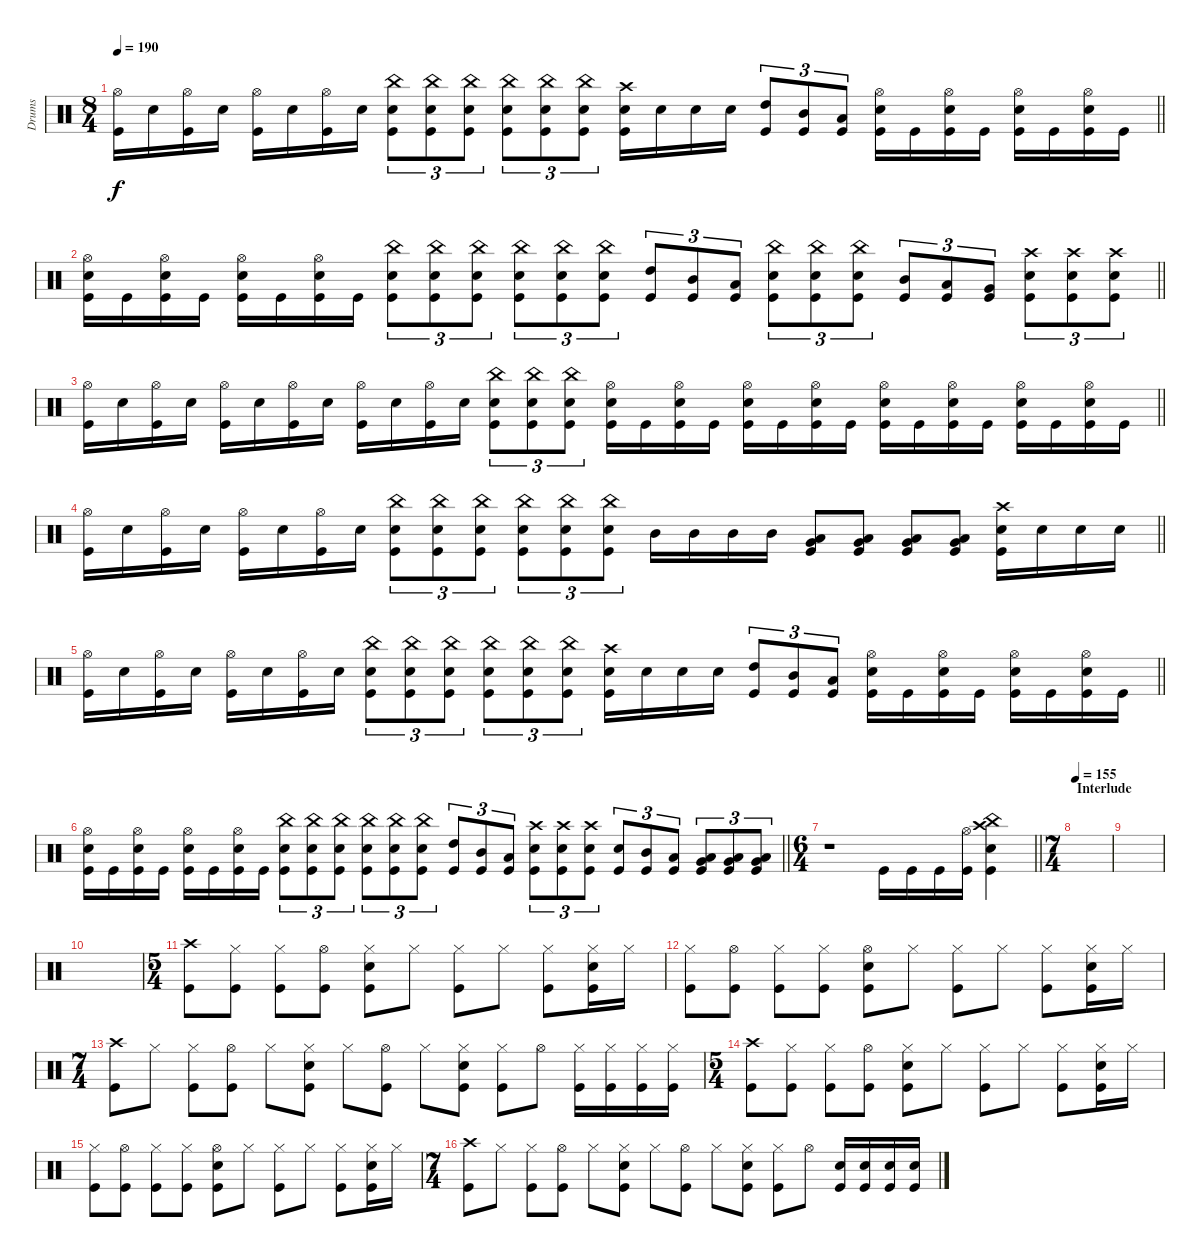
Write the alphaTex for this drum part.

\track ("Drums" "Drums") {instrument percussion}
\staff {score}
\articulation defaults
\ts (8 4)
\tempo 190
\clef neutral
\barLineRight lightlight
\ks c
("Hi-Hat (open)" "Kick (hit)").16{dy f} "Snare (hit) 2".16 ("Kick (hit)" "Hi-Hat (open)").16 "Snare (hit) 2".16 ("Kick (hit)" "Hi-Hat (open)").16 "Snare (hit) 2".16 ("Kick (hit)" "Hi-Hat (open)").16 "Snare (hit) 2".16 ("Kick (hit)" "Snare (hit) 2" "China (hit)").8{tu (3 2)} ("Kick (hit)" "Snare (hit) 2" "China (hit)").8{tu (3 2)} ("Kick (hit)" "Snare (hit) 2" "China (hit)").8{tu (3 2)} ("Kick (hit)" "Snare (hit) 2" "China (hit)").8{tu (3 2)} ("Kick (hit)" "Snare (hit) 2" "China (hit)").8{tu (3 2)} ("Kick (hit)" "Snare (hit) 2" "China (hit)").8{tu (3 2)} ("Kick (hit)" "Crash high (hit)" "Snare (hit) 2").16 "Snare (hit) 2".16 "Snare (hit) 2".16 "Snare (hit) 2".16 ("Kick (hit)" "High Tom (hit)").8{tu (3 2)} ("Kick (hit)" "Mid Tom (hit)").8{tu (3 2)} ("Kick (hit)" "Low Tom (hit)").8{tu (3 2)} ("Kick (hit)" "Snare (hit) 2" "Hi-Hat (open)").16 "Kick (hit)".16 ("Kick (hit)" "Snare (hit) 2" "Hi-Hat (open)").16 "Kick (hit)".16 ("Kick (hit)" "Snare (hit) 2" "Hi-Hat (open)").16 "Kick (hit)".16 ("Kick (hit)" "Snare (hit) 2" "Hi-Hat (open)").16 "Kick (hit)".16 |
\barLineRight lightlight
("Kick (hit)" "Snare (hit) 2" "Hi-Hat (open)").16 "Kick (hit)".16 ("Kick (hit)" "Snare (hit) 2" "Hi-Hat (open)").16 "Kick (hit)".16 ("Kick (hit)" "Snare (hit) 2" "Hi-Hat (open)").16 "Kick (hit)".16 ("Kick (hit)" "Snare (hit) 2" "Hi-Hat (open)").16 "Kick (hit)".16 ("Kick (hit)" "Snare (hit) 2" "China (hit)").8{tu (3 2)} ("Kick (hit)" "Snare (hit) 2" "China (hit)").8{tu (3 2)} ("Kick (hit)" "Snare (hit) 2" "China (hit)").8{tu (3 2)} ("Kick (hit)" "Snare (hit) 2" "China (hit)").8{tu (3 2)} ("Kick (hit)" "Snare (hit) 2" "China (hit)").8{tu (3 2)} ("Kick (hit)" "Snare (hit) 2" "China (hit)").8{tu (3 2)} ("Kick (hit)" "High Tom (hit)").8{tu (3 2)} ("Kick (hit)" "Mid Tom (hit)").8{tu (3 2)} ("Kick (hit)" "Low Tom (hit)").8{tu (3 2)} ("Kick (hit)" "Snare (hit) 2" "China (hit)").8{tu (3 2)} ("Kick (hit)" "Snare (hit) 2" "China (hit)").8{tu (3 2)} ("Kick (hit)" "Snare (hit) 2" "China (hit)").8{tu (3 2)} ("Kick (hit)" "Mid Tom (hit)").8{tu (3 2)} ("Kick (hit)" "Low Tom (hit)").8{tu (3 2)} ("Kick (hit)" "Very Low Tom (hit)").8{tu (3 2)} ("Kick (hit)" "Snare (hit) 2" "Crash high (hit)").8{tu (3 2)} ("Kick (hit)" "Snare (hit) 2" "Crash high (hit)").8{tu (3 2)} ("Kick (hit)" "Snare (hit) 2" "Crash high (hit)").8{tu (3 2)} |
\barLineRight lightlight
("Hi-Hat (open)" "Kick (hit)").16 "Snare (hit) 2".16 ("Kick (hit)" "Hi-Hat (open)").16 "Snare (hit) 2".16 ("Kick (hit)" "Hi-Hat (open)").16 "Snare (hit) 2".16 ("Kick (hit)" "Hi-Hat (open)").16 "Snare (hit) 2".16 ("Kick (hit)" "Hi-Hat (open)").16 "Snare (hit) 2".16 ("Kick (hit)" "Hi-Hat (open)").16 "Snare (hit) 2".16 ("Kick (hit)" "Snare (hit) 2" "China (hit)").8{tu (3 2)} ("Kick (hit)" "Snare (hit) 2" "China (hit)").8{tu (3 2)} ("Kick (hit)" "Snare (hit) 2" "China (hit)").8{tu (3 2)} ("Kick (hit)" "Snare (hit) 2" "Hi-Hat (open)").16 "Kick (hit)".16 ("Kick (hit)" "Snare (hit) 2" "Hi-Hat (open)").16 "Kick (hit)".16 ("Kick (hit)" "Snare (hit) 2" "Hi-Hat (open)").16 "Kick (hit)".16 ("Kick (hit)" "Snare (hit) 2" "Hi-Hat (open)").16 "Kick (hit)".16 ("Kick (hit)" "Snare (hit) 2" "Hi-Hat (open)").16 "Kick (hit)".16 ("Kick (hit)" "Snare (hit) 2" "Hi-Hat (open)").16 "Kick (hit)".16 ("Kick (hit)" "Snare (hit) 2" "Hi-Hat (open)").16 "Kick (hit)".16 ("Kick (hit)" "Snare (hit) 2" "Hi-Hat (open)").16 "Kick (hit)".16 |
\barLineRight lightlight
("Hi-Hat (open)" "Kick (hit)").16 "Snare (hit) 2".16 ("Kick (hit)" "Hi-Hat (open)").16 "Snare (hit) 2".16 ("Kick (hit)" "Hi-Hat (open)").16 "Snare (hit) 2".16 ("Kick (hit)" "Hi-Hat (open)").16 "Snare (hit) 2".16 ("Kick (hit)" "Snare (hit) 2" "China (hit)").8{tu (3 2)} ("Kick (hit)" "Snare (hit) 2" "China (hit)").8{tu (3 2)} ("Kick (hit)" "Snare (hit) 2" "China (hit)").8{tu (3 2)} ("Kick (hit)" "Snare (hit) 2" "China (hit)").8{tu (3 2)} ("Kick (hit)" "Snare (hit) 2" "China (hit)").8{tu (3 2)} ("Kick (hit)" "Snare (hit) 2" "China (hit)").8{tu (3 2)} "Mid Tom (hit)".16 "Mid Tom (hit)".16 "Mid Tom (hit)".16 "Mid Tom (hit)".16 ("Kick (hit)" "Low Tom (hit)" "Very Low Tom (hit)").8 ("Kick (hit)" "Low Tom (hit)" "Very Low Tom (hit)").8 ("Kick (hit)" "Very Low Tom (hit)" "Low Floor Tom (hit)").8 ("Kick (hit)" "Very Low Tom (hit)" "Low Floor Tom (hit)").8 ("Kick (hit)" "Crash high (hit)" "Snare (hit) 2").16 "Snare (hit) 2".16 "Snare (hit) 2".16 "Snare (hit) 2".16 |
\barLineRight lightlight
("Hi-Hat (open)" "Kick (hit)").16 "Snare (hit) 2".16 ("Kick (hit)" "Hi-Hat (open)").16 "Snare (hit) 2".16 ("Kick (hit)" "Hi-Hat (open)").16 "Snare (hit) 2".16 ("Kick (hit)" "Hi-Hat (open)").16 "Snare (hit) 2".16 ("Kick (hit)" "Snare (hit) 2" "China (hit)").8{tu (3 2)} ("Kick (hit)" "Snare (hit) 2" "China (hit)").8{tu (3 2)} ("Kick (hit)" "Snare (hit) 2" "China (hit)").8{tu (3 2)} ("Kick (hit)" "Snare (hit) 2" "China (hit)").8{tu (3 2)} ("Kick (hit)" "Snare (hit) 2" "China (hit)").8{tu (3 2)} ("Kick (hit)" "Snare (hit) 2" "China (hit)").8{tu (3 2)} ("Kick (hit)" "Crash high (hit)" "Snare (hit) 2").16 "Snare (hit) 2".16 "Snare (hit) 2".16 "Snare (hit) 2".16 ("Kick (hit)" "High Tom (hit)").8{tu (3 2)} ("Kick (hit)" "Mid Tom (hit)").8{tu (3 2)} ("Kick (hit)" "Low Tom (hit)").8{tu (3 2)} ("Kick (hit)" "Snare (hit) 2" "Hi-Hat (open)").16 "Kick (hit)".16 ("Kick (hit)" "Snare (hit) 2" "Hi-Hat (open)").16 "Kick (hit)".16 ("Kick (hit)" "Snare (hit) 2" "Hi-Hat (open)").16 "Kick (hit)".16 ("Kick (hit)" "Snare (hit) 2" "Hi-Hat (open)").16 "Kick (hit)".16 |
\barLineRight lightlight
("Kick (hit)" "Snare (hit) 2" "Hi-Hat (open)").16 "Kick (hit)".16 ("Kick (hit)" "Snare (hit) 2" "Hi-Hat (open)").16 "Kick (hit)".16 ("Kick (hit)" "Snare (hit) 2" "Hi-Hat (open)").16 "Kick (hit)".16 ("Kick (hit)" "Snare (hit) 2" "Hi-Hat (open)").16 "Kick (hit)".16 ("Kick (hit)" "Snare (hit) 2" "China (hit)").8{tu (3 2)} ("Kick (hit)" "Snare (hit) 2" "China (hit)").8{tu (3 2)} ("Kick (hit)" "Snare (hit) 2" "China (hit)").8{tu (3 2)} ("Kick (hit)" "Snare (hit) 2" "China (hit)").8{tu (3 2)} ("Kick (hit)" "Snare (hit) 2" "China (hit)").8{tu (3 2)} ("Kick (hit)" "Snare (hit) 2" "China (hit)").8{tu (3 2)} ("Kick (hit)" "High Tom (hit)").8{tu (3 2)} ("Kick (hit)" "Mid Tom (hit)").8{tu (3 2)} ("Kick (hit)" "Low Tom (hit)").8{tu (3 2)} ("Kick (hit)" "Snare (hit) 2" "Crash high (hit)").8{tu (3 2)} ("Kick (hit)" "Snare (hit) 2" "Crash high (hit)").8{tu (3 2)} ("Kick (hit)" "Snare (hit) 2" "Crash high (hit)").8{tu (3 2)} ("Kick (hit)" "Snare (hit) 2").8{tu (3 2)} ("Kick (hit)" "Mid Tom (hit)").8{tu (3 2)} ("Kick (hit)" "Low Tom (hit)").8{tu (3 2)} ("Kick (hit)" "Very Low Tom (hit)" "Low Floor Tom (hit)").8{tu (3 2)} ("Kick (hit)" "Very Low Tom (hit)" "Low Floor Tom (hit)").8{tu (3 2)} ("Kick (hit)" "Very Low Tom (hit)" "Low Floor Tom (hit)").8{tu (3 2)} |
\ts (6 4)
\barLineRight lightlight
r.1 "Kick (hit)".16 "Kick (hit)".16 "Kick (hit)".16 ("Kick (hit)" "Hi-Hat (open)").16 ("Kick (hit)" "Snare (hit) 2" "China (hit)" "Crash high (hit)").4 |
\ts (7 4)
\section ("" "Interlude")
\tempo 155
|
|
|
\ts (5 4)
("Crash high (hit)" "Kick (hit)").8 ("Hi-Hat (closed)" "Kick (hit)").8 ("Hi-Hat (closed)" "Kick (hit)").8 ("Hi-Hat (open)" "Kick (hit)").8 ("Hi-Hat (closed)" "Kick (hit)" "Snare (hit) 2").8 "Hi-Hat (closed)".8 ("Hi-Hat (closed)" "Kick (hit)").8 "Hi-Hat (closed)".8 ("Hi-Hat (closed)" "Kick (hit)").8 ("Hi-Hat (closed)" "Kick (hit)" "Snare (hit) 2").16 "Hi-Hat (closed)".16 |
("Hi-Hat (closed)" "Kick (hit)").8 ("Hi-Hat (open)" "Kick (hit)").8 ("Hi-Hat (closed)" "Kick (hit)").8 ("Hi-Hat (closed)" "Kick (hit)").8 ("Hi-Hat (open)" "Kick (hit)" "Snare (hit) 2").8 "Hi-Hat (closed)".8 ("Hi-Hat (closed)" "Kick (hit)").8 "Hi-Hat (closed)".8 ("Hi-Hat (closed)" "Kick (hit)").8 ("Hi-Hat (closed)" "Kick (hit)" "Snare (hit) 2").16 "Hi-Hat (closed)".16 |
\ts (7 4)
("Crash high (hit)" "Kick (hit)").8 "Hi-Hat (closed)".8 ("Hi-Hat (closed)" "Kick (hit)").8 ("Hi-Hat (open)" "Kick (hit)").8 "Hi-Hat (closed)".8 ("Hi-Hat (closed)" "Kick (hit)" "Snare (hit) 2").8 "Hi-Hat (closed)".8 ("Hi-Hat (open)" "Kick (hit)").8 "Hi-Hat (closed)".8 ("Hi-Hat (closed)" "Kick (hit)" "Snare (hit) 2").8 ("Hi-Hat (closed)" "Kick (hit)").8 "Hi-Hat (open)".8 ("Hi-Hat (closed)" "Kick (hit)").16 ("Kick (hit)" "Hi-Hat (closed)").16 ("Hi-Hat (closed)" "Kick (hit)").16 ("Kick (hit)" "Hi-Hat (closed)").16 |
\ts (5 4)
("Crash high (hit)" "Kick (hit)").8 ("Hi-Hat (closed)" "Kick (hit)").8 ("Hi-Hat (closed)" "Kick (hit)").8 ("Hi-Hat (open)" "Kick (hit)").8 ("Hi-Hat (closed)" "Kick (hit)" "Snare (hit) 2").8 "Hi-Hat (closed)".8 ("Hi-Hat (closed)" "Kick (hit)").8 "Hi-Hat (closed)".8 ("Hi-Hat (closed)" "Kick (hit)").8 ("Hi-Hat (closed)" "Kick (hit)" "Snare (hit) 2").16 "Hi-Hat (closed)".16 |
("Hi-Hat (closed)" "Kick (hit)").8 ("Hi-Hat (open)" "Kick (hit)").8 ("Hi-Hat (closed)" "Kick (hit)").8 ("Hi-Hat (closed)" "Kick (hit)").8 ("Hi-Hat (open)" "Kick (hit)" "Snare (hit) 2").8 "Hi-Hat (closed)".8 ("Hi-Hat (closed)" "Kick (hit)").8 "Hi-Hat (closed)".8 ("Hi-Hat (closed)" "Kick (hit)").8 ("Hi-Hat (closed)" "Kick (hit)" "Snare (hit) 2").16 "Hi-Hat (closed)".16 |
\ts (7 4)
("Crash high (hit)" "Kick (hit)").8 "Hi-Hat (closed)".8 ("Hi-Hat (closed)" "Kick (hit)").8 ("Hi-Hat (open)" "Kick (hit)").8 "Hi-Hat (closed)".8 ("Hi-Hat (closed)" "Kick (hit)" "Snare (hit) 2").8 "Hi-Hat (closed)".8 ("Hi-Hat (open)" "Kick (hit)").8 "Hi-Hat (closed)".8 ("Hi-Hat (closed)" "Kick (hit)" "Snare (hit) 2").8 ("Hi-Hat (closed)" "Kick (hit)").8 "Hi-Hat (open)".8 ("Kick (hit)" "Snare (hit) 2").16 ("Kick (hit)" "Snare (hit) 2").16 ("Kick (hit)" "Snare (hit) 2").16 ("Kick (hit)" "Snare (hit) 2").16
